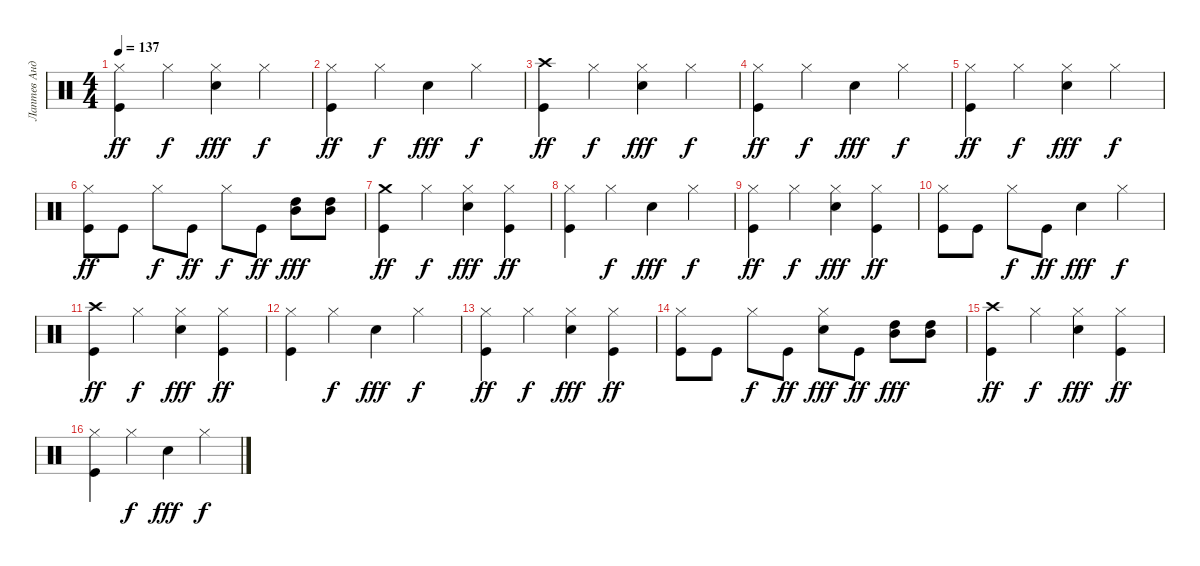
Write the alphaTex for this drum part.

\track ("Лаптев Андрей" "Лаптев Анд") {instrument percussion}
\staff {score}
\articulation defaults
\ts (4 4)
\tempo 137
\clef neutral
\ks c
("Kick (hit)" "Hi-Hat (closed)").4{dy ff} "Hi-Hat (closed)".4{dy f} ("Snare (hit) 2" "Hi-Hat (closed)").4{dy fff} "Hi-Hat (closed)".4{dy f} |
("Kick (hit)" "Hi-Hat (closed)").4{dy ff} "Hi-Hat (closed)".4{dy f} "Snare (hit) 2".4{dy fff} "Hi-Hat (closed)".4{dy f} |
("Kick (hit)" "Crash high (hit)").4{dy ff} "Hi-Hat (closed)".4{dy f} ("Snare (hit) 2" "Hi-Hat (closed)").4{dy fff} "Hi-Hat (closed)".4{dy f} |
("Kick (hit)" "Hi-Hat (closed)").4{dy ff} "Hi-Hat (closed)".4{dy f} "Snare (hit) 2".4{dy fff} "Hi-Hat (closed)".4{dy f} |
("Kick (hit)" "Hi-Hat (closed)").4{dy ff} "Hi-Hat (closed)".4{dy f} ("Snare (hit) 2" "Hi-Hat (closed)").4{dy fff} "Hi-Hat (closed)".4{dy f} |
("Kick (hit)" "Hi-Hat (closed)").8{dy ff} "Kick (hit)".8 "Hi-Hat (closed)".8{dy f} "Kick (hit)".8{dy ff} "Hi-Hat (closed)".8{dy f} "Kick (hit)".8{dy ff} ("Mid Tom (hit)" "High Tom (hit)").8{dy fff} ("High Tom (hit)" "Mid Tom (hit)").8 |
("Kick (hit)" "Crash medium (hit)").4{dy ff} "Hi-Hat (closed)".4{dy f} ("Snare (hit) 2" "Hi-Hat (closed)").4{dy fff} ("Kick (hit)" "Hi-Hat (closed)").4{dy ff} |
("Kick (hit)" "Hi-Hat (closed)").4 "Hi-Hat (closed)".4{dy f} "Snare (hit) 2".4{dy fff} "Hi-Hat (closed)".4{dy f} |
("Kick (hit)" "Hi-Hat (closed)").4{dy ff} "Hi-Hat (closed)".4{dy f} ("Snare (hit) 2" "Hi-Hat (closed)").4{dy fff} ("Kick (hit)" "Hi-Hat (closed)").4{dy ff} |
("Kick (hit)" "Hi-Hat (closed)").8 "Kick (hit)".8 "Hi-Hat (closed)".8{dy f} "Kick (hit)".8{dy ff} "Electric Snare (hit)".4{dy fff} "Hi-Hat (closed)".4{dy f} |
("Kick (hit)" "Crash high (hit)").4{dy ff} "Hi-Hat (closed)".4{dy f} ("Snare (hit) 2" "Hi-Hat (closed)").4{dy fff} ("Kick (hit)" "Hi-Hat (closed)").4{dy ff} |
("Kick (hit)" "Hi-Hat (closed)").4 "Hi-Hat (closed)".4{dy f} "Snare (hit) 2".4{dy fff} "Hi-Hat (closed)".4{dy f} |
("Hi-Hat (closed)" "Kick (hit)").4{dy ff} "Hi-Hat (closed)".4{dy f} ("Snare (hit) 2" "Hi-Hat (closed)").4{dy fff} ("Kick (hit)" "Hi-Hat (closed)").4{dy ff} |
("Kick (hit)" "Hi-Hat (closed)").8 "Kick (hit)".8 "Hi-Hat (closed)".8{dy f} "Kick (hit)".8{dy ff} ("Snare (hit) 2" "Hi-Hat (closed)").8{dy fff} "Kick (hit)".8{dy ff} ("Mid Tom (hit)" "High Tom (hit)").8{dy fff} ("High Tom (hit)" "Mid Tom (hit)").8 |
("Crash high (hit)" "Kick (hit)").4{dy ff} "Hi-Hat (closed)".4{dy f} ("Snare (hit) 2" "Hi-Hat (closed)").4{dy fff} ("Kick (hit)" "Hi-Hat (closed)").4{dy ff} |
("Kick (hit)" "Hi-Hat (closed)").4 "Hi-Hat (closed)".4{dy f} "Snare (hit) 2".4{dy fff} "Hi-Hat (closed)".4{dy f}
